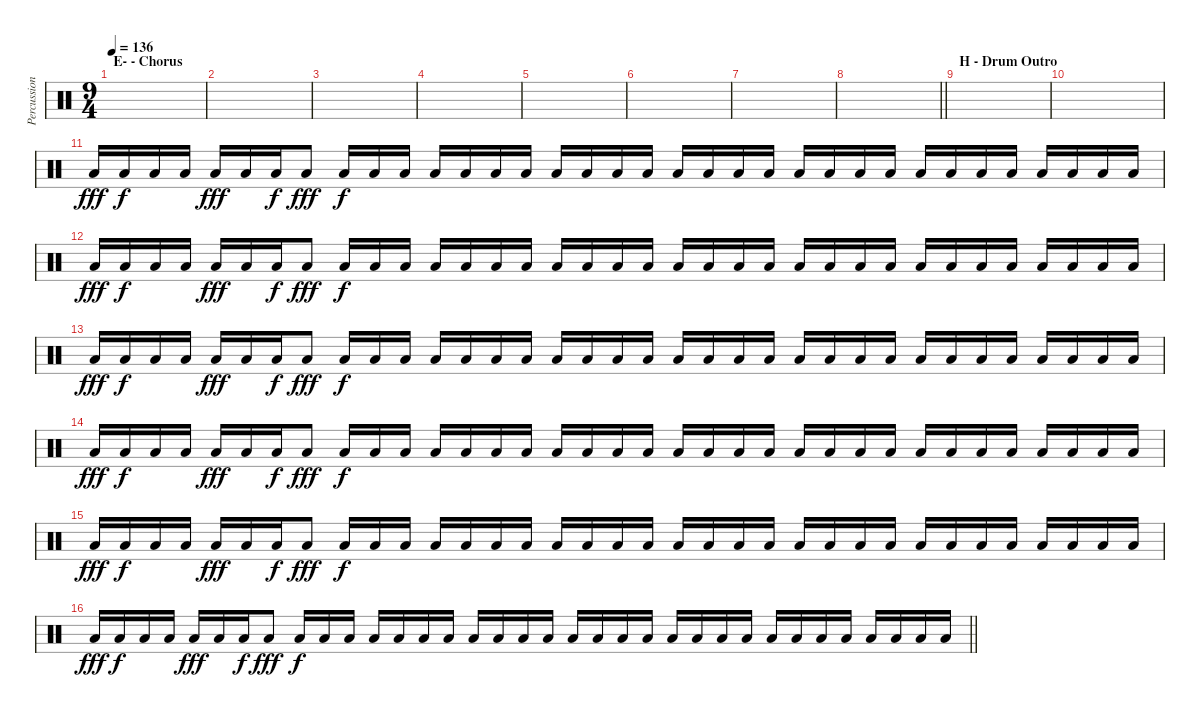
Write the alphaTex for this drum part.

\track ("Percussions" "Percussion") {instrument percussion}
\staff {score}
\articulation defaults
\ts (9 4)
\section ("" "E- - Chorus")
\tempo 136
\clef neutral
\ks c
|
|
|
|
|
|
|
\barLineRight lightlight
|
\section ("" "H - Drum Outro")
|
|
"Low Floor Tom (hit)".16{dy fff} "Low Floor Tom (hit)".16{dy f} "Low Floor Tom (hit)".16 "Low Floor Tom (hit)".16 "Low Floor Tom (hit)".16{dy fff} "Low Floor Tom (hit)".16 "Low Floor Tom (hit)".16{dy f} "Low Floor Tom (hit)".8{dy fff} "Low Floor Tom (hit)".16{dy f} "Low Floor Tom (hit)".16 "Low Floor Tom (hit)".16 "Low Floor Tom (hit)".16 "Low Floor Tom (hit)".16 "Low Floor Tom (hit)".16 "Low Floor Tom (hit)".16 "Low Floor Tom (hit)".16 "Low Floor Tom (hit)".16 "Low Floor Tom (hit)".16 "Low Floor Tom (hit)".16 "Low Floor Tom (hit)".16 "Low Floor Tom (hit)".16 "Low Floor Tom (hit)".16 "Low Floor Tom (hit)".16 "Low Floor Tom (hit)".16 "Low Floor Tom (hit)".16 "Low Floor Tom (hit)".16 "Low Floor Tom (hit)".16 "Low Floor Tom (hit)".16 "Low Floor Tom (hit)".16 "Low Floor Tom (hit)".16 "Low Floor Tom (hit)".16 "Low Floor Tom (hit)".16 "Low Floor Tom (hit)".16 "Low Floor Tom (hit)".16 "Low Floor Tom (hit)".16 |
"Low Floor Tom (hit)".16{dy fff} "Low Floor Tom (hit)".16{dy f} "Low Floor Tom (hit)".16 "Low Floor Tom (hit)".16 "Low Floor Tom (hit)".16{dy fff} "Low Floor Tom (hit)".16 "Low Floor Tom (hit)".16{dy f} "Low Floor Tom (hit)".8{dy fff} "Low Floor Tom (hit)".16{dy f} "Low Floor Tom (hit)".16 "Low Floor Tom (hit)".16 "Low Floor Tom (hit)".16 "Low Floor Tom (hit)".16 "Low Floor Tom (hit)".16 "Low Floor Tom (hit)".16 "Low Floor Tom (hit)".16 "Low Floor Tom (hit)".16 "Low Floor Tom (hit)".16 "Low Floor Tom (hit)".16 "Low Floor Tom (hit)".16 "Low Floor Tom (hit)".16 "Low Floor Tom (hit)".16 "Low Floor Tom (hit)".16 "Low Floor Tom (hit)".16 "Low Floor Tom (hit)".16 "Low Floor Tom (hit)".16 "Low Floor Tom (hit)".16 "Low Floor Tom (hit)".16 "Low Floor Tom (hit)".16 "Low Floor Tom (hit)".16 "Low Floor Tom (hit)".16 "Low Floor Tom (hit)".16 "Low Floor Tom (hit)".16 "Low Floor Tom (hit)".16 "Low Floor Tom (hit)".16 |
"Low Floor Tom (hit)".16{dy fff} "Low Floor Tom (hit)".16{dy f} "Low Floor Tom (hit)".16 "Low Floor Tom (hit)".16 "Low Floor Tom (hit)".16{dy fff} "Low Floor Tom (hit)".16 "Low Floor Tom (hit)".16{dy f} "Low Floor Tom (hit)".8{dy fff} "Low Floor Tom (hit)".16{dy f} "Low Floor Tom (hit)".16 "Low Floor Tom (hit)".16 "Low Floor Tom (hit)".16 "Low Floor Tom (hit)".16 "Low Floor Tom (hit)".16 "Low Floor Tom (hit)".16 "Low Floor Tom (hit)".16 "Low Floor Tom (hit)".16 "Low Floor Tom (hit)".16 "Low Floor Tom (hit)".16 "Low Floor Tom (hit)".16 "Low Floor Tom (hit)".16 "Low Floor Tom (hit)".16 "Low Floor Tom (hit)".16 "Low Floor Tom (hit)".16 "Low Floor Tom (hit)".16 "Low Floor Tom (hit)".16 "Low Floor Tom (hit)".16 "Low Floor Tom (hit)".16 "Low Floor Tom (hit)".16 "Low Floor Tom (hit)".16 "Low Floor Tom (hit)".16 "Low Floor Tom (hit)".16 "Low Floor Tom (hit)".16 "Low Floor Tom (hit)".16 "Low Floor Tom (hit)".16 |
"Low Floor Tom (hit)".16{dy fff} "Low Floor Tom (hit)".16{dy f} "Low Floor Tom (hit)".16 "Low Floor Tom (hit)".16 "Low Floor Tom (hit)".16{dy fff} "Low Floor Tom (hit)".16 "Low Floor Tom (hit)".16{dy f} "Low Floor Tom (hit)".8{dy fff} "Low Floor Tom (hit)".16{dy f} "Low Floor Tom (hit)".16 "Low Floor Tom (hit)".16 "Low Floor Tom (hit)".16 "Low Floor Tom (hit)".16 "Low Floor Tom (hit)".16 "Low Floor Tom (hit)".16 "Low Floor Tom (hit)".16 "Low Floor Tom (hit)".16 "Low Floor Tom (hit)".16 "Low Floor Tom (hit)".16 "Low Floor Tom (hit)".16 "Low Floor Tom (hit)".16 "Low Floor Tom (hit)".16 "Low Floor Tom (hit)".16 "Low Floor Tom (hit)".16 "Low Floor Tom (hit)".16 "Low Floor Tom (hit)".16 "Low Floor Tom (hit)".16 "Low Floor Tom (hit)".16 "Low Floor Tom (hit)".16 "Low Floor Tom (hit)".16 "Low Floor Tom (hit)".16 "Low Floor Tom (hit)".16 "Low Floor Tom (hit)".16 "Low Floor Tom (hit)".16 "Low Floor Tom (hit)".16 |
"Low Floor Tom (hit)".16{dy fff} "Low Floor Tom (hit)".16{dy f} "Low Floor Tom (hit)".16 "Low Floor Tom (hit)".16 "Low Floor Tom (hit)".16{dy fff} "Low Floor Tom (hit)".16 "Low Floor Tom (hit)".16{dy f} "Low Floor Tom (hit)".8{dy fff} "Low Floor Tom (hit)".16{dy f} "Low Floor Tom (hit)".16 "Low Floor Tom (hit)".16 "Low Floor Tom (hit)".16 "Low Floor Tom (hit)".16 "Low Floor Tom (hit)".16 "Low Floor Tom (hit)".16 "Low Floor Tom (hit)".16 "Low Floor Tom (hit)".16 "Low Floor Tom (hit)".16 "Low Floor Tom (hit)".16 "Low Floor Tom (hit)".16 "Low Floor Tom (hit)".16 "Low Floor Tom (hit)".16 "Low Floor Tom (hit)".16 "Low Floor Tom (hit)".16 "Low Floor Tom (hit)".16 "Low Floor Tom (hit)".16 "Low Floor Tom (hit)".16 "Low Floor Tom (hit)".16 "Low Floor Tom (hit)".16 "Low Floor Tom (hit)".16 "Low Floor Tom (hit)".16 "Low Floor Tom (hit)".16 "Low Floor Tom (hit)".16 "Low Floor Tom (hit)".16 "Low Floor Tom (hit)".16 |
\barLineRight lightlight "Low Floor Tom (hit)".16{dy fff} "Low Floor Tom (hit)".16{dy f} "Low Floor Tom (hit)".16 "Low Floor Tom (hit)".16 "Low Floor Tom (hit)".16{dy fff} "Low Floor Tom (hit)".16 "Low Floor Tom (hit)".16{dy f} "Low Floor Tom (hit)".8{dy fff} "Low Floor Tom (hit)".16{dy f} "Low Floor Tom (hit)".16 "Low Floor Tom (hit)".16 "Low Floor Tom (hit)".16 "Low Floor Tom (hit)".16 "Low Floor Tom (hit)".16 "Low Floor Tom (hit)".16 "Low Floor Tom (hit)".16 "Low Floor Tom (hit)".16 "Low Floor Tom (hit)".16 "Low Floor Tom (hit)".16 "Low Floor Tom (hit)".16 "Low Floor Tom (hit)".16 "Low Floor Tom (hit)".16 "Low Floor Tom (hit)".16 "Low Floor Tom (hit)".16 "Low Floor Tom (hit)".16 "Low Floor Tom (hit)".16 "Low Floor Tom (hit)".16 "Low Floor Tom (hit)".16 "Low Floor Tom (hit)".16 "Low Floor Tom (hit)".16 "Low Floor Tom (hit)".16 "Low Floor Tom (hit)".16 "Low Floor Tom (hit)".16 "Low Floor Tom (hit)".16 "Low Floor Tom (hit)".16
